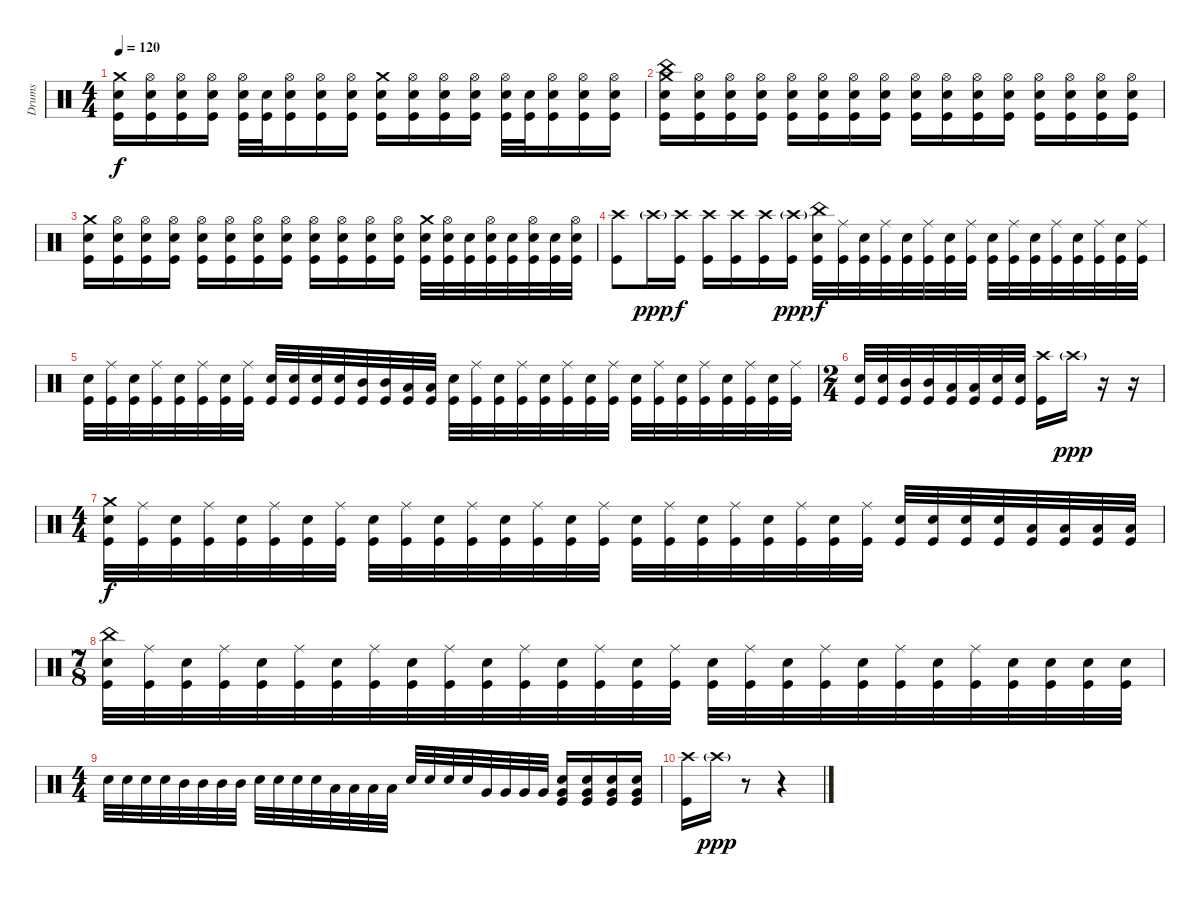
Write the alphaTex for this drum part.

\track ("Drums" "Drums") {instrument percussion}
\staff {score}
\articulation defaults
\ts (4 4)
\tempo 120
\clef neutral
\ks c
("Crash medium (hit)" "Electric Snare (hit)" "Kick (hit)").16{dy f} ("Hi-Hat (open)" "Electric Snare (hit)" "Kick (hit)").16 ("Hi-Hat (open)" "Electric Snare (hit)" "Kick (hit)").16 ("Hi-Hat (open)" "Electric Snare (hit)" "Kick (hit)").16 ("Hi-Hat (open)" "Electric Snare (hit)" "Kick (hit)").32 ("Electric Snare (hit)" "Kick (hit)").32 ("Hi-Hat (open)" "Electric Snare (hit)" "Kick (hit)").16 ("Hi-Hat (open)" "Electric Snare (hit)" "Kick (hit)").16 ("Hi-Hat (open)" "Electric Snare (hit)" "Kick (hit)").16 ("Crash medium (hit)" "Electric Snare (hit)" "Kick (hit)").16 ("Hi-Hat (open)" "Electric Snare (hit)" "Kick (hit)").16 ("Hi-Hat (open)" "Electric Snare (hit)" "Kick (hit)").16 ("Hi-Hat (open)" "Electric Snare (hit)" "Kick (hit)").16 ("Hi-Hat (open)" "Electric Snare (hit)" "Kick (hit)").32 ("Electric Snare (hit)" "Kick (hit)").32 ("Hi-Hat (open)" "Electric Snare (hit)" "Kick (hit)").16 ("Hi-Hat (open)" "Electric Snare (hit)" "Kick (hit)").16 ("Hi-Hat (open)" "Electric Snare (hit)" "Kick (hit)").16 |
("Crash medium (hit)" "China (hit)" "Electric Snare (hit)" "Kick (hit)").16 ("Hi-Hat (open)" "Electric Snare (hit)" "Kick (hit)").16 ("Hi-Hat (open)" "Electric Snare (hit)" "Kick (hit)").16 ("Hi-Hat (open)" "Electric Snare (hit)" "Kick (hit)").16 ("Hi-Hat (open)" "Electric Snare (hit)" "Kick (hit)").16 ("Hi-Hat (open)" "Electric Snare (hit)" "Kick (hit)").16 ("Hi-Hat (open)" "Electric Snare (hit)" "Kick (hit)").16 ("Hi-Hat (open)" "Electric Snare (hit)" "Kick (hit)").16 ("Hi-Hat (open)" "Electric Snare (hit)" "Kick (hit)").16 ("Hi-Hat (open)" "Electric Snare (hit)" "Kick (hit)").16 ("Hi-Hat (open)" "Electric Snare (hit)" "Kick (hit)").16 ("Hi-Hat (open)" "Electric Snare (hit)" "Kick (hit)").16 ("Hi-Hat (open)" "Electric Snare (hit)" "Kick (hit)").16 ("Hi-Hat (open)" "Electric Snare (hit)" "Kick (hit)").16 ("Hi-Hat (open)" "Electric Snare (hit)" "Kick (hit)").16 ("Hi-Hat (open)" "Electric Snare (hit)" "Kick (hit)").16 |
("Crash medium (hit)" "Electric Snare (hit)" "Kick (hit)").16 ("Hi-Hat (open)" "Electric Snare (hit)" "Kick (hit)").16 ("Hi-Hat (open)" "Electric Snare (hit)" "Kick (hit)").16 ("Hi-Hat (open)" "Electric Snare (hit)" "Kick (hit)").16 ("Hi-Hat (open)" "Electric Snare (hit)" "Kick (hit)").16 ("Hi-Hat (open)" "Electric Snare (hit)" "Kick (hit)").16 ("Hi-Hat (open)" "Electric Snare (hit)" "Kick (hit)").16 ("Hi-Hat (open)" "Electric Snare (hit)" "Kick (hit)").16 ("Hi-Hat (open)" "Electric Snare (hit)" "Kick (hit)").16 ("Hi-Hat (open)" "Electric Snare (hit)" "Kick (hit)").16 ("Hi-Hat (open)" "Electric Snare (hit)" "Kick (hit)").16 ("Hi-Hat (open)" "Electric Snare (hit)" "Kick (hit)").16 ("Crash medium (hit)" "Electric Snare (hit)" "Kick (hit)").32 ("Hi-Hat (open)" "Electric Snare (hit)" "Kick (hit)").32 ("Electric Snare (hit)" "Kick (hit)").32 ("Hi-Hat (open)" "Electric Snare (hit)" "Kick (hit)").32 ("Electric Snare (hit)" "Kick (hit)").32 ("Hi-Hat (open)" "Electric Snare (hit)" "Kick (hit)").32 ("Electric Snare (hit)" "Kick (hit)").32 ("Hi-Hat (open)" "Electric Snare (hit)" "Kick (hit)").32 |
("Crash high (hit)" "Kick (hit)").8 "Crash high (hit)"{g}.16{dy ppp} ("Crash high (hit)" "Kick (hit)").16{dy f} ("Crash high (hit)" "Kick (hit)").16 ("Crash high (hit)" "Kick (hit)").16 ("Crash high (hit)" "Kick (hit)").16 ("Crash high (hit)"{g} "Kick (hit)").16{dy ppp} ("China (hit)" "Electric Snare (hit)" "Kick (hit)").32{dy f} ("Ride (middle)" "Kick (hit)").32 ("Electric Snare (hit)" "Kick (hit)").32 ("Ride (middle)" "Kick (hit)").32 ("Electric Snare (hit)" "Kick (hit)").32 ("Ride (middle)" "Kick (hit)").32 ("Electric Snare (hit)" "Kick (hit)").32 ("Ride (middle)" "Kick (hit)").32 ("Electric Snare (hit)" "Kick (hit)").32 ("Ride (middle)" "Kick (hit)").32 ("Electric Snare (hit)" "Kick (hit)").32 ("Ride (middle)" "Kick (hit)").32 ("Electric Snare (hit)" "Kick (hit)").32 ("Ride (middle)" "Kick (hit)").32 ("Electric Snare (hit)" "Kick (hit)").32 ("Ride (middle)" "Kick (hit)").32 |
("Electric Snare (hit)" "Kick (hit)").32 ("Ride (middle)" "Kick (hit)").32 ("Electric Snare (hit)" "Kick (hit)").32 ("Ride (middle)" "Kick (hit)").32 ("Electric Snare (hit)" "Kick (hit)").32 ("Ride (middle)" "Kick (hit)").32 ("Electric Snare (hit)" "Kick (hit)").32 ("Ride (middle)" "Kick (hit)").32 ("Electric Snare (hit)" "Kick (hit)").32 ("Electric Snare (hit)" "Kick (hit)").32 ("Electric Snare (hit)" "Kick (hit)").32 ("Electric Snare (hit)" "Kick (hit)").32 ("Mid Tom (hit)" "Kick (hit)").32 ("Mid Tom (hit)" "Kick (hit)").32 ("Low Tom (hit)" "Kick (hit)").32 ("Low Tom (hit)" "Kick (hit)").32 ("Electric Snare (hit)" "Kick (hit)").32 ("Ride (middle)" "Kick (hit)").32 ("Electric Snare (hit)" "Kick (hit)").32 ("Ride (middle)" "Kick (hit)").32 ("Electric Snare (hit)" "Kick (hit)").32 ("Ride (middle)" "Kick (hit)").32 ("Electric Snare (hit)" "Kick (hit)").32 ("Ride (middle)" "Kick (hit)").32 ("Electric Snare (hit)" "Kick (hit)").32 ("Ride (middle)" "Kick (hit)").32 ("Electric Snare (hit)" "Kick (hit)").32 ("Ride (middle)" "Kick (hit)").32 ("Electric Snare (hit)" "Kick (hit)").32 ("Ride (middle)" "Kick (hit)").32 ("Electric Snare (hit)" "Kick (hit)").32 ("Ride (middle)" "Kick (hit)").32 |
\ts (2 4)
("Electric Snare (hit)" "Kick (hit)").32 ("Electric Snare (hit)" "Kick (hit)").32 ("Mid Tom (hit)" "Kick (hit)").32 ("Mid Tom (hit)" "Kick (hit)").32 ("Low Tom (hit)" "Kick (hit)").32 ("Low Tom (hit)" "Kick (hit)").32 ("Electric Snare (hit)" "Kick (hit)").32 ("Electric Snare (hit)" "Kick (hit)").32 ("Crash high (hit)" "Kick (hit)").16 "Crash high (hit)"{g}.16{dy ppp} r.16 r.16 |
\ts (4 4)
("Crash medium (hit)" "Electric Snare (hit)" "Kick (hit)").32{dy f} ("Ride (middle)" "Kick (hit)").32 ("Electric Snare (hit)" "Kick (hit)").32 ("Ride (middle)" "Kick (hit)").32 ("Electric Snare (hit)" "Kick (hit)").32 ("Ride (middle)" "Kick (hit)").32 ("Electric Snare (hit)" "Kick (hit)").32 ("Ride (middle)" "Kick (hit)").32 ("Electric Snare (hit)" "Kick (hit)").32 ("Ride (middle)" "Kick (hit)").32 ("Electric Snare (hit)" "Kick (hit)").32 ("Ride (middle)" "Kick (hit)").32 ("Electric Snare (hit)" "Kick (hit)").32 ("Ride (middle)" "Kick (hit)").32 ("Electric Snare (hit)" "Kick (hit)").32 ("Ride (middle)" "Kick (hit)").32 ("Electric Snare (hit)" "Kick (hit)").32 ("Ride (middle)" "Kick (hit)").32 ("Electric Snare (hit)" "Kick (hit)").32 ("Ride (middle)" "Kick (hit)").32 ("Electric Snare (hit)" "Kick (hit)").32 ("Ride (middle)" "Kick (hit)").32 ("Electric Snare (hit)" "Kick (hit)").32 ("Ride (middle)" "Kick (hit)").32 ("Electric Snare (hit)" "Kick (hit)").32 ("Electric Snare (hit)" "Kick (hit)").32 ("Electric Snare (hit)" "Kick (hit)").32 ("Electric Snare (hit)" "Kick (hit)").32 ("Low Tom (hit)" "Kick (hit)").32 ("Low Tom (hit)" "Kick (hit)").32 ("Low Tom (hit)" "Kick (hit)").32 ("Low Tom (hit)" "Kick (hit)").32 |
\ts (7 8)
("China (hit)" "Electric Snare (hit)" "Kick (hit)").32 ("Ride (middle)" "Kick (hit)").32 ("Electric Snare (hit)" "Kick (hit)").32 ("Ride (middle)" "Kick (hit)").32 ("Electric Snare (hit)" "Kick (hit)").32 ("Ride (middle)" "Kick (hit)").32 ("Electric Snare (hit)" "Kick (hit)").32 ("Ride (middle)" "Kick (hit)").32 ("Electric Snare (hit)" "Kick (hit)").32 ("Ride (middle)" "Kick (hit)").32 ("Electric Snare (hit)" "Kick (hit)").32 ("Ride (middle)" "Kick (hit)").32 ("Electric Snare (hit)" "Kick (hit)").32 ("Ride (middle)" "Kick (hit)").32 ("Electric Snare (hit)" "Kick (hit)").32 ("Ride (middle)" "Kick (hit)").32 ("Electric Snare (hit)" "Kick (hit)").32 ("Ride (middle)" "Kick (hit)").32 ("Electric Snare (hit)" "Kick (hit)").32 ("Ride (middle)" "Kick (hit)").32 ("Electric Snare (hit)" "Kick (hit)").32 ("Ride (middle)" "Kick (hit)").32 ("Electric Snare (hit)" "Kick (hit)").32 ("Ride (middle)" "Kick (hit)").32 ("Electric Snare (hit)" "Kick (hit)").32 ("Electric Snare (hit)" "Kick (hit)").32 ("Electric Snare (hit)" "Kick (hit)").32 ("Electric Snare (hit)" "Kick (hit)").32 |
\ts (4 4)
"Electric Snare (hit)".32 "Electric Snare (hit)".32 "Electric Snare (hit)".32 "Electric Snare (hit)".32 "Mid Tom (hit)".32 "Mid Tom (hit)".32 "Mid Tom (hit)".32 "Mid Tom (hit)".32 "Electric Snare (hit)".32 "Electric Snare (hit)".32 "Electric Snare (hit)".32 "Electric Snare (hit)".32 "Low Tom (hit)".32 "Low Tom (hit)".32 "Low Tom (hit)".32 "Low Tom (hit)".32 "Electric Snare (hit)".32 "Electric Snare (hit)".32 "Electric Snare (hit)".32 "Electric Snare (hit)".32 "Very Low Tom (hit)".32 "Very Low Tom (hit)".32 "Very Low Tom (hit)".32 "Very Low Tom (hit)".32 ("Electric Snare (hit)" "Very Low Tom (hit)" "Kick (hit)").16 ("Electric Snare (hit)" "Very Low Tom (hit)" "Kick (hit)").16 ("Electric Snare (hit)" "Very Low Tom (hit)" "Kick (hit)").16 ("Electric Snare (hit)" "Very Low Tom (hit)" "Kick (hit)").16 |
("Crash high (hit)" "Kick (hit)").16 "Crash high (hit)"{g}.16{dy ppp} r.8 r.4
